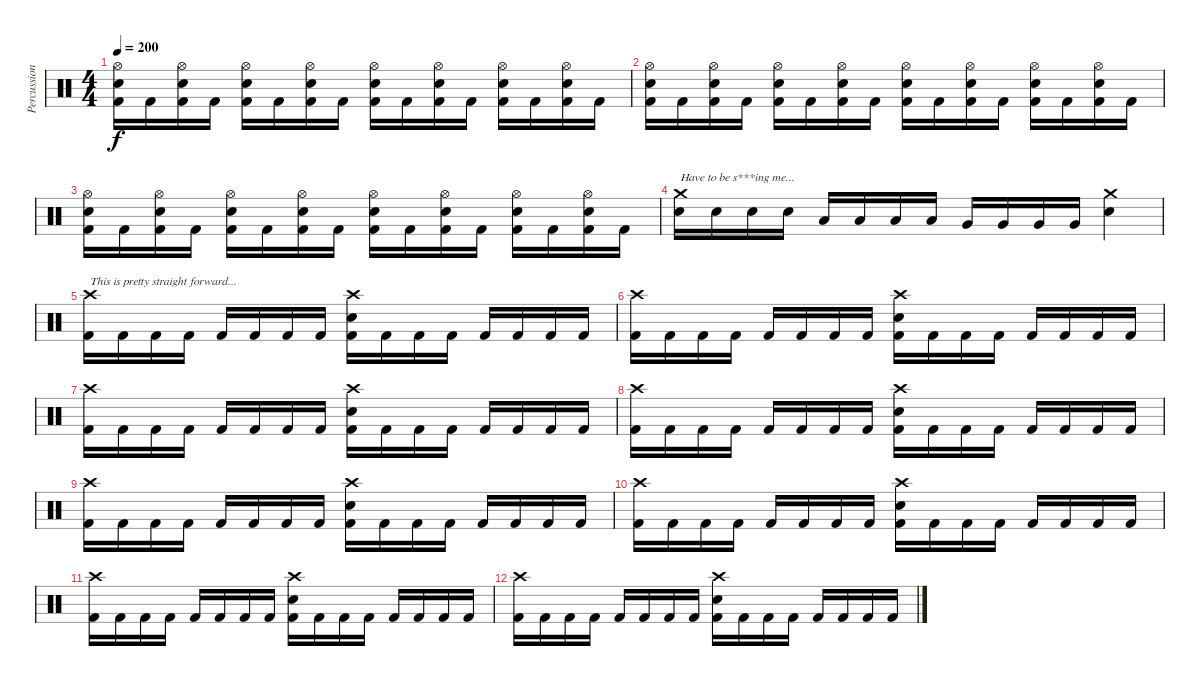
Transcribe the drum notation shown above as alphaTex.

\track ("Percussion" "Percussion") {instrument percussion}
\staff {score}
\articulation defaults
\ts (4 4)
\tempo 200
\clef neutral
\ks c
("Hi-Hat (open)" "Electric Snare (hit)" "Kick (hit) 2").16{dy f} "Kick (hit) 2".16 ("Hi-Hat (open)" "Electric Snare (hit)" "Kick (hit) 2").16 "Kick (hit) 2".16 ("Hi-Hat (open)" "Electric Snare (hit)" "Kick (hit) 2").16 "Kick (hit) 2".16 ("Hi-Hat (open)" "Electric Snare (hit)" "Kick (hit) 2").16 "Kick (hit) 2".16 ("Hi-Hat (open)" "Electric Snare (hit)" "Kick (hit) 2").16 "Kick (hit) 2".16 ("Hi-Hat (open)" "Electric Snare (hit)" "Kick (hit) 2").16 "Kick (hit) 2".16 ("Hi-Hat (open)" "Electric Snare (hit)" "Kick (hit) 2").16 "Kick (hit) 2".16 ("Hi-Hat (open)" "Electric Snare (hit)" "Kick (hit) 2").16 "Kick (hit) 2".16 |
("Hi-Hat (open)" "Electric Snare (hit)" "Kick (hit) 2").16 "Kick (hit) 2".16 ("Hi-Hat (open)" "Electric Snare (hit)" "Kick (hit) 2").16 "Kick (hit) 2".16 ("Hi-Hat (open)" "Electric Snare (hit)" "Kick (hit) 2").16 "Kick (hit) 2".16 ("Hi-Hat (open)" "Electric Snare (hit)" "Kick (hit) 2").16 "Kick (hit) 2".16 ("Hi-Hat (open)" "Electric Snare (hit)" "Kick (hit) 2").16 "Kick (hit) 2".16 ("Hi-Hat (open)" "Electric Snare (hit)" "Kick (hit) 2").16 "Kick (hit) 2".16 ("Hi-Hat (open)" "Electric Snare (hit)" "Kick (hit) 2").16 "Kick (hit) 2".16 ("Hi-Hat (open)" "Electric Snare (hit)" "Kick (hit) 2").16 "Kick (hit) 2".16 |
("Hi-Hat (open)" "Electric Snare (hit)" "Kick (hit) 2").16 "Kick (hit) 2".16 ("Hi-Hat (open)" "Electric Snare (hit)" "Kick (hit) 2").16 "Kick (hit) 2".16 ("Hi-Hat (open)" "Electric Snare (hit)" "Kick (hit) 2").16 "Kick (hit) 2".16 ("Hi-Hat (open)" "Electric Snare (hit)" "Kick (hit) 2").16 "Kick (hit) 2".16 ("Hi-Hat (open)" "Electric Snare (hit)" "Kick (hit) 2").16 "Kick (hit) 2".16 ("Hi-Hat (open)" "Electric Snare (hit)" "Kick (hit) 2").16 "Kick (hit) 2".16 ("Hi-Hat (open)" "Electric Snare (hit)" "Kick (hit) 2").16 "Kick (hit) 2".16 ("Hi-Hat (open)" "Electric Snare (hit)" "Kick (hit) 2").16 "Kick (hit) 2".16 |
("Crash medium (hit)" "Electric Snare (hit)").16{txt "Have to be s***ing me..."} "Electric Snare (hit)".16 "Electric Snare (hit)".16 "Electric Snare (hit)".16 "Low Tom (hit)".16 "Low Tom (hit)".16 "Low Tom (hit)".16 "Low Tom (hit)".16 "Very Low Tom (hit)".16 "Very Low Tom (hit)".16 "Very Low Tom (hit)".16 "Very Low Tom (hit)".16 ("Crash medium (hit)" "Electric Snare (hit)").4 |
("Crash high (hit)" "Kick (hit) 2").16{txt "This is pretty straight forward..."} "Kick (hit) 2".16 "Kick (hit) 2".16 "Kick (hit) 2".16 "Kick (hit) 2".16 "Kick (hit) 2".16 "Kick (hit) 2".16 "Kick (hit) 2".16 ("Crash high (hit)" "Electric Snare (hit)" "Kick (hit) 2").16 "Kick (hit) 2".16 "Kick (hit) 2".16 "Kick (hit) 2".16 "Kick (hit) 2".16 "Kick (hit) 2".16 "Kick (hit) 2".16 "Kick (hit) 2".16 |
("Crash high (hit)" "Kick (hit) 2").16 "Kick (hit) 2".16 "Kick (hit) 2".16 "Kick (hit) 2".16 "Kick (hit) 2".16 "Kick (hit) 2".16 "Kick (hit) 2".16 "Kick (hit) 2".16 ("Crash high (hit)" "Electric Snare (hit)" "Kick (hit) 2").16 "Kick (hit) 2".16 "Kick (hit) 2".16 "Kick (hit) 2".16 "Kick (hit) 2".16 "Kick (hit) 2".16 "Kick (hit) 2".16 "Kick (hit) 2".16 |
("Crash high (hit)" "Kick (hit) 2").16 "Kick (hit) 2".16 "Kick (hit) 2".16 "Kick (hit) 2".16 "Kick (hit) 2".16 "Kick (hit) 2".16 "Kick (hit) 2".16 "Kick (hit) 2".16 ("Crash high (hit)" "Electric Snare (hit)" "Kick (hit) 2").16 "Kick (hit) 2".16 "Kick (hit) 2".16 "Kick (hit) 2".16 "Kick (hit) 2".16 "Kick (hit) 2".16 "Kick (hit) 2".16 "Kick (hit) 2".16 |
("Crash high (hit)" "Kick (hit) 2").16 "Kick (hit) 2".16 "Kick (hit) 2".16 "Kick (hit) 2".16 "Kick (hit) 2".16 "Kick (hit) 2".16 "Kick (hit) 2".16 "Kick (hit) 2".16 ("Crash high (hit)" "Electric Snare (hit)" "Kick (hit) 2").16 "Kick (hit) 2".16 "Kick (hit) 2".16 "Kick (hit) 2".16 "Kick (hit) 2".16 "Kick (hit) 2".16 "Kick (hit) 2".16 "Kick (hit) 2".16 |
("Crash high (hit)" "Kick (hit) 2").16 "Kick (hit) 2".16 "Kick (hit) 2".16 "Kick (hit) 2".16 "Kick (hit) 2".16 "Kick (hit) 2".16 "Kick (hit) 2".16 "Kick (hit) 2".16 ("Crash high (hit)" "Electric Snare (hit)" "Kick (hit) 2").16 "Kick (hit) 2".16 "Kick (hit) 2".16 "Kick (hit) 2".16 "Kick (hit) 2".16 "Kick (hit) 2".16 "Kick (hit) 2".16 "Kick (hit) 2".16 |
("Crash high (hit)" "Kick (hit) 2").16 "Kick (hit) 2".16 "Kick (hit) 2".16 "Kick (hit) 2".16 "Kick (hit) 2".16 "Kick (hit) 2".16 "Kick (hit) 2".16 "Kick (hit) 2".16 ("Crash high (hit)" "Electric Snare (hit)" "Kick (hit) 2").16 "Kick (hit) 2".16 "Kick (hit) 2".16 "Kick (hit) 2".16 "Kick (hit) 2".16 "Kick (hit) 2".16 "Kick (hit) 2".16 "Kick (hit) 2".16 |
("Crash high (hit)" "Kick (hit) 2").16 "Kick (hit) 2".16 "Kick (hit) 2".16 "Kick (hit) 2".16 "Kick (hit) 2".16 "Kick (hit) 2".16 "Kick (hit) 2".16 "Kick (hit) 2".16 ("Crash high (hit)" "Electric Snare (hit)" "Kick (hit) 2").16 "Kick (hit) 2".16 "Kick (hit) 2".16 "Kick (hit) 2".16 "Kick (hit) 2".16 "Kick (hit) 2".16 "Kick (hit) 2".16 "Kick (hit) 2".16 |
("Crash high (hit)" "Kick (hit) 2").16 "Kick (hit) 2".16 "Kick (hit) 2".16 "Kick (hit) 2".16 "Kick (hit) 2".16 "Kick (hit) 2".16 "Kick (hit) 2".16 "Kick (hit) 2".16 ("Crash high (hit)" "Electric Snare (hit)" "Kick (hit) 2").16 "Kick (hit) 2".16 "Kick (hit) 2".16 "Kick (hit) 2".16 "Kick (hit) 2".16 "Kick (hit) 2".16 "Kick (hit) 2".16 "Kick (hit) 2".16
